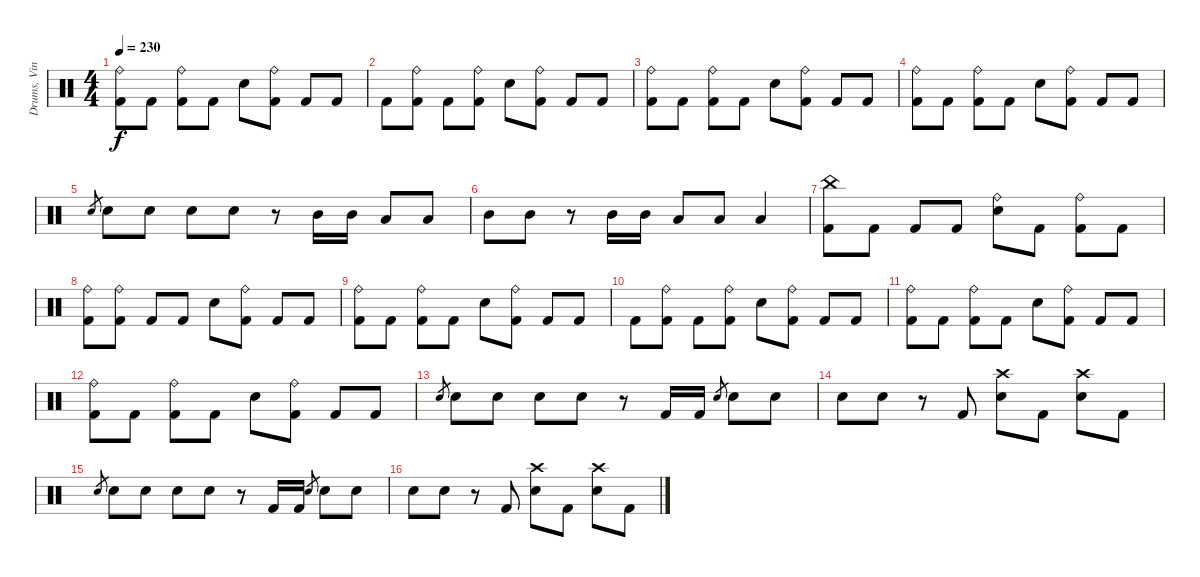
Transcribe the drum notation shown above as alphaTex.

\track ("Drums, Vinnie" "Drums, Vin") {instrument percussion}
\staff {score}
\articulation defaults
\ts (4 4)
\tempo 230
\clef neutral
\ks c
("Ride (bell)" "Kick (hit) 2").8{dy f} "Kick (hit) 2".8 ("Ride (bell)" "Kick (hit) 2").8 "Kick (hit) 2".8 "Electric Snare (hit)".8 ("Ride (bell)" "Kick (hit) 2").8 "Kick (hit) 2".8 "Kick (hit) 2".8 |
"Kick (hit) 2".8 ("Ride (bell)" "Kick (hit) 2").8 "Kick (hit) 2".8 ("Ride (bell)" "Kick (hit) 2").8 "Electric Snare (hit)".8 ("Ride (bell)" "Kick (hit) 2").8 "Kick (hit) 2".8 "Kick (hit) 2".8 |
("Ride (bell)" "Kick (hit) 2").8 "Kick (hit) 2".8 ("Ride (bell)" "Kick (hit) 2").8 "Kick (hit) 2".8 "Electric Snare (hit)".8 ("Ride (bell)" "Kick (hit) 2").8 "Kick (hit) 2".8 "Kick (hit) 2".8 |
("Ride (bell)" "Kick (hit) 2").8 "Kick (hit) 2".8 ("Ride (bell)" "Kick (hit) 2").8 "Kick (hit) 2".8 "Electric Snare (hit)".8 ("Ride (bell)" "Kick (hit) 2").8 "Kick (hit) 2".8 "Kick (hit) 2".8 |
"Electric Snare (hit)".8{gr} "Electric Snare (hit)".8 "Electric Snare (hit)".8 "Electric Snare (hit)".8 "Electric Snare (hit)".8 r.8 "Mid Tom (hit)".16 "Mid Tom (hit)".16 "Low Tom (hit)".8 "Low Tom (hit)".8 |
"Mid Tom (hit)".8 "Mid Tom (hit)".8 r.8 "Mid Tom (hit)".16 "Mid Tom (hit)".16 "Low Tom (hit)".8 "Low Tom (hit)".8 "Low Tom (hit)".4 |
("China (hit)" "Kick (hit) 2").8 "Kick (hit) 2".8 "Kick (hit) 2".8 "Kick (hit) 2".8 ("Ride (bell)" "Electric Snare (hit)").8 "Kick (hit) 2".8 ("Ride (bell)" "Kick (hit) 2").8 "Kick (hit) 2".8 |
("Ride (bell)" "Kick (hit) 2").8 ("Ride (bell)" "Kick (hit) 2").8 "Kick (hit) 2".8 "Kick (hit) 2".8 "Electric Snare (hit)".8 ("Ride (bell)" "Kick (hit) 2").8 "Kick (hit) 2".8 "Kick (hit) 2".8 |
("Ride (bell)" "Kick (hit) 2").8 "Kick (hit) 2".8 ("Ride (bell)" "Kick (hit) 2").8 "Kick (hit) 2".8 "Electric Snare (hit)".8 ("Ride (bell)" "Kick (hit) 2").8 "Kick (hit) 2".8 "Kick (hit) 2".8 |
"Kick (hit) 2".8 ("Ride (bell)" "Kick (hit) 2").8 "Kick (hit) 2".8 ("Ride (bell)" "Kick (hit) 2").8 "Electric Snare (hit)".8 ("Ride (bell)" "Kick (hit) 2").8 "Kick (hit) 2".8 "Kick (hit) 2".8 |
("Ride (bell)" "Kick (hit) 2").8 "Kick (hit) 2".8 ("Ride (bell)" "Kick (hit) 2").8 "Kick (hit) 2".8 "Electric Snare (hit)".8 ("Ride (bell)" "Kick (hit) 2").8 "Kick (hit) 2".8 "Kick (hit) 2".8 |
("Ride (bell)" "Kick (hit) 2").8 "Kick (hit) 2".8 ("Ride (bell)" "Kick (hit) 2").8 "Kick (hit) 2".8 "Electric Snare (hit)".8 ("Ride (bell)" "Kick (hit) 2").8 "Kick (hit) 2".8 "Kick (hit) 2".8 |
"Electric Snare (hit)".8{gr} "Electric Snare (hit)".8 "Electric Snare (hit)".8 "Electric Snare (hit)".8 "Electric Snare (hit)".8 r.8 "Kick (hit) 2".16 "Kick (hit) 2".16 "Electric Snare (hit)".8{gr} "Electric Snare (hit)".8 "Electric Snare (hit)".8 |
"Electric Snare (hit)".8 "Electric Snare (hit)".8 r.8 "Kick (hit) 2".8 ("Crash high (hit)" "Electric Snare (hit)").8 "Kick (hit) 2".8 ("Crash high (hit)" "Electric Snare (hit)").8 "Kick (hit) 2".8 |
"Electric Snare (hit)".8{gr} "Electric Snare (hit)".8 "Electric Snare (hit)".8 "Electric Snare (hit)".8 "Electric Snare (hit)".8 r.8 "Kick (hit) 2".16 "Kick (hit) 2".16 "Electric Snare (hit)".8{gr} "Electric Snare (hit)".8 "Electric Snare (hit)".8 |
"Electric Snare (hit)".8 "Electric Snare (hit)".8 r.8 "Kick (hit) 2".8 ("Crash high (hit)" "Electric Snare (hit)").8 "Kick (hit) 2".8 ("Crash high (hit)" "Electric Snare (hit)").8 "Kick (hit) 2".8
